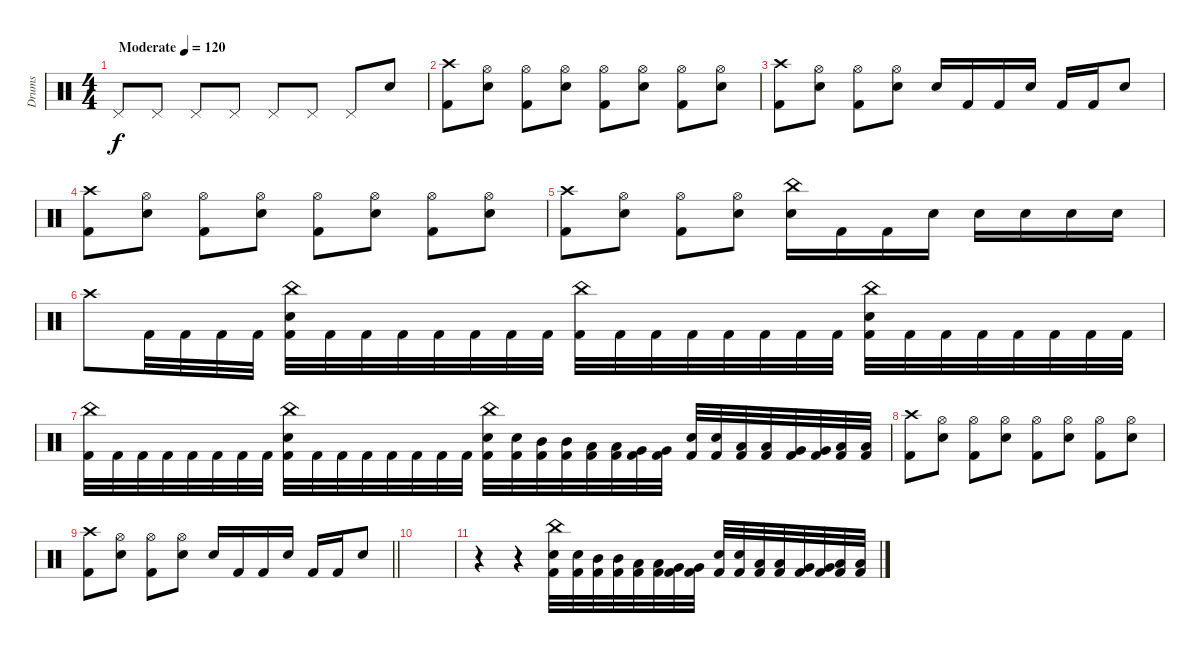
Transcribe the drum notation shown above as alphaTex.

\track ("Drums" "Drums") {instrument percussion}
\staff
\articulation defaults
\ts (4 4)
\tempo (120 "Moderate")
\clef neutral
\ks c "Pedal Hi-Hat (hit)".8{dy f} "Pedal Hi-Hat (hit)".8 "Pedal Hi-Hat (hit)".8 "Pedal Hi-Hat (hit)".8 "Pedal Hi-Hat (hit)".8 "Pedal Hi-Hat (hit)".8 "Pedal Hi-Hat (hit)".8 "Snare (hit) 2".8
|
("Crash high (hit)" "Kick (hit) 2").8 ("Hi-Hat (open)" "Snare (hit) 2").8 ("Hi-Hat (open)" "Kick (hit) 2").8 ("Hi-Hat (open)" "Snare (hit) 2").8 ("Hi-Hat (open)" "Kick (hit) 2").8 ("Hi-Hat (open)" "Snare (hit) 2").8 ("Hi-Hat (open)" "Kick (hit) 2").8 ("Hi-Hat (open)" "Snare (hit) 2").8 |
("Crash high (hit)" "Kick (hit) 2").8 ("Hi-Hat (open)" "Snare (hit) 2").8 ("Hi-Hat (open)" "Kick (hit) 2").8 ("Hi-Hat (open)" "Snare (hit) 2").8 "Snare (hit) 2".16 "Kick (hit) 2".16 "Kick (hit) 2".16 "Snare (hit) 2".16 "Kick (hit) 2".16 "Kick (hit) 2".16 "Snare (hit) 2".8 |
("Crash high (hit)" "Kick (hit) 2").8 ("Hi-Hat (open)" "Snare (hit) 2").8 ("Hi-Hat (open)" "Kick (hit) 2").8 ("Hi-Hat (open)" "Snare (hit) 2").8 ("Hi-Hat (open)" "Kick (hit) 2").8 ("Hi-Hat (open)" "Snare (hit) 2").8 ("Hi-Hat (open)" "Kick (hit) 2").8 ("Hi-Hat (open)" "Snare (hit) 2").8 |
("Crash high (hit)" "Kick (hit) 2").8 ("Hi-Hat (open)" "Snare (hit) 2").8 ("Hi-Hat (open)" "Kick (hit) 2").8 ("Hi-Hat (open)" "Snare (hit) 2").8 ("China (hit)" "Snare (hit) 2").16 "Kick (hit) 2".16 "Kick (hit) 2".16 "Snare (hit) 2".16 "Snare (hit) 2".16 "Snare (hit) 2".16 "Snare (hit) 2".16 "Snare (hit) 2".16 |
"Crash high (hit)".8 "Kick (hit) 2".32 "Kick (hit) 2".32 "Kick (hit) 2".32 "Kick (hit) 2".32 ("China (hit)" "Snare (hit) 2" "Kick (hit) 2").32 "Kick (hit) 2".32 "Kick (hit) 2".32 "Kick (hit) 2".32 "Kick (hit) 2".32 "Kick (hit) 2".32 "Kick (hit) 2".32 "Kick (hit) 2".32 ("China (hit)" "Kick (hit) 2").32 "Kick (hit) 2".32 "Kick (hit) 2".32 "Kick (hit) 2".32 "Kick (hit) 2".32 "Kick (hit) 2".32 "Kick (hit) 2".32 "Kick (hit) 2".32 ("China (hit)" "Snare (hit) 2" "Kick (hit) 2").32 "Kick (hit) 2".32 "Kick (hit) 2".32 "Kick (hit) 2".32 "Kick (hit) 2".32 "Kick (hit) 2".32 "Kick (hit) 2".32 "Kick (hit) 2".32 |
("China (hit)" "Kick (hit) 2").32 "Kick (hit) 2".32 "Kick (hit) 2".32 "Kick (hit) 2".32 "Kick (hit) 2".32 "Kick (hit) 2".32 "Kick (hit) 2".32 "Kick (hit) 2".32 ("China (hit)" "Snare (hit) 2" "Kick (hit) 2").32 "Kick (hit) 2".32 "Kick (hit) 2".32 "Kick (hit) 2".32 "Kick (hit) 2".32 "Kick (hit) 2".32 "Kick (hit) 2".32 "Kick (hit) 2".32 ("China (hit)" "Snare (hit) 2" "Kick (hit) 2").32 ("Snare (hit) 2" "Kick (hit) 2").32 ("Mid Tom (hit)" "Kick (hit) 2").32 ("Mid Tom (hit)" "Kick (hit) 2").32 ("Low Tom (hit)" "Kick (hit) 2").32 ("Low Tom (hit)" "Kick (hit) 2").32 ("Very Low Tom (hit)" "Kick (hit) 2").32 ("Very Low Tom (hit)" "Kick (hit) 2").32 ("Snare (hit) 2" "Kick (hit) 2").32 ("Snare (hit) 2" "Kick (hit) 2").32 ("Low Tom (hit)" "Kick (hit) 2").32 ("Low Tom (hit)" "Kick (hit) 2").32 ("Very Low Tom (hit)" "Kick (hit) 2").32 ("Very Low Tom (hit)" "Kick (hit) 2").32 ("Low Floor Tom (hit)" "Kick (hit) 2").32 ("Low Floor Tom (hit)" "Kick (hit) 2").32 |
("Crash high (hit)" "Kick (hit) 2").8 ("Hi-Hat (open)" "Snare (hit) 2").8 ("Hi-Hat (open)" "Kick (hit) 2").8 ("Hi-Hat (open)" "Snare (hit) 2").8 ("Hi-Hat (open)" "Kick (hit) 2").8 ("Hi-Hat (open)" "Snare (hit) 2").8 ("Hi-Hat (open)" "Kick (hit) 2").8 ("Hi-Hat (open)" "Snare (hit) 2").8 |
\barLineRight lightlight
("Crash high (hit)" "Kick (hit) 2").8 ("Hi-Hat (open)" "Snare (hit) 2").8 ("Hi-Hat (open)" "Kick (hit) 2").8 ("Hi-Hat (open)" "Snare (hit) 2").8 "Snare (hit) 2".16 "Kick (hit) 2".16 "Kick (hit) 2".16 "Snare (hit) 2".16 "Kick (hit) 2".16 "Kick (hit) 2".16 "Snare (hit) 2".8 |
\section ("" "")
|
r.4 r.4 ("China (hit)" "Snare (hit) 2" "Kick (hit) 2").32 ("Snare (hit) 2" "Kick (hit) 2").32 ("Mid Tom (hit)" "Kick (hit) 2").32 ("Mid Tom (hit)" "Kick (hit) 2").32 ("Low Tom (hit)" "Kick (hit) 2").32 ("Low Tom (hit)" "Kick (hit) 2").32 ("Very Low Tom (hit)" "Kick (hit) 2").32 ("Very Low Tom (hit)" "Kick (hit) 2").32 ("Snare (hit) 2" "Kick (hit) 2").32 ("Snare (hit) 2" "Kick (hit) 2").32 ("Low Tom (hit)" "Kick (hit) 2").32 ("Low Tom (hit)" "Kick (hit) 2").32 ("Very Low Tom (hit)" "Kick (hit) 2").32 ("Very Low Tom (hit)" "Kick (hit) 2").32 ("Low Floor Tom (hit)" "Kick (hit) 2").32 ("Low Floor Tom (hit)" "Kick (hit) 2").32
